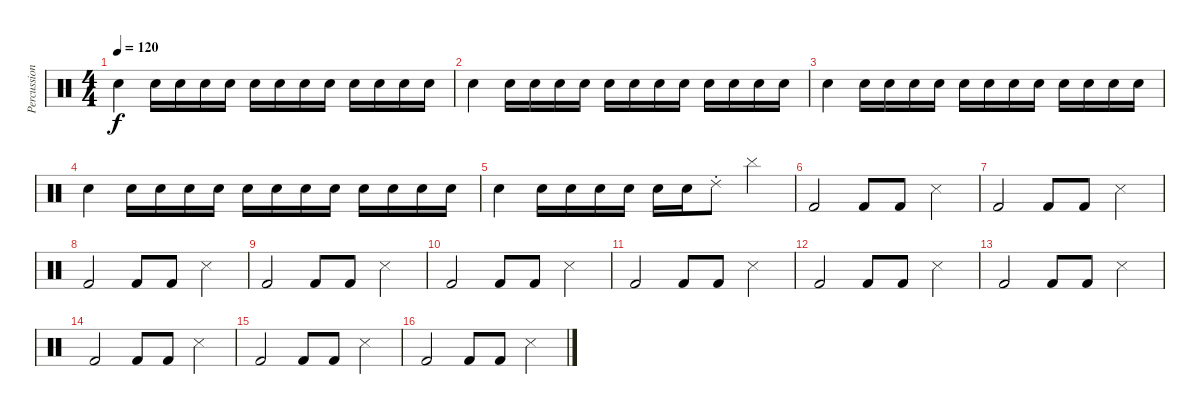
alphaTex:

\track ("Percussion" "Percussion") {instrument percussion}
\staff {score}
\articulation defaults
\ts (4 4)
\tempo 120
\clef neutral
\ks c "Snare (hit) 2".4{dy f} "Snare (hit) 2".16 "Snare (hit) 2".16 "Snare (hit) 2".16 "Snare (hit) 2".16 "Snare (hit) 2".16 "Snare (hit) 2".16 "Snare (hit) 2".16 "Snare (hit) 2".16 "Snare (hit) 2".16 "Snare (hit) 2".16 "Snare (hit) 2".16 "Snare (hit) 2".16
|
"Snare (hit) 2".4 "Snare (hit) 2".16 "Snare (hit) 2".16 "Snare (hit) 2".16 "Snare (hit) 2".16 "Snare (hit) 2".16 "Snare (hit) 2".16 "Snare (hit) 2".16 "Snare (hit) 2".16 "Snare (hit) 2".16 "Snare (hit) 2".16 "Snare (hit) 2".16 "Snare (hit) 2".16 |
"Snare (hit) 2".4 "Snare (hit) 2".16 "Snare (hit) 2".16 "Snare (hit) 2".16 "Snare (hit) 2".16 "Snare (hit) 2".16 "Snare (hit) 2".16 "Snare (hit) 2".16 "Snare (hit) 2".16 "Snare (hit) 2".16 "Snare (hit) 2".16 "Snare (hit) 2".16 "Snare (hit) 2".16 |
"Snare (hit) 2".4 "Snare (hit) 2".16 "Snare (hit) 2".16 "Snare (hit) 2".16 "Snare (hit) 2".16 "Snare (hit) 2".16 "Snare (hit) 2".16 "Snare (hit) 2".16 "Snare (hit) 2".16 "Snare (hit) 2".16 "Snare (hit) 2".16 "Snare (hit) 2".16 "Snare (hit) 2".16 |
"Snare (hit) 2".4 "Snare (hit) 2".16 "Snare (hit) 2".16 "Snare (hit) 2".16 "Snare (hit) 2".16 "Snare (hit) 2".16 "Snare (hit) 2".16 "Ride (choke) 2".8 "Cymbal (hit)".4 |
"Kick (hit) 2".2 "Kick (hit) 2".8 "Kick (hit) 2".8 "Snare (side stick) 3".4 |
"Kick (hit) 2".2 "Kick (hit) 2".8 "Kick (hit) 2".8 "Snare (side stick) 3".4 |
"Kick (hit) 2".2 "Kick (hit) 2".8 "Kick (hit) 2".8 "Snare (side stick) 3".4 |
"Kick (hit) 2".2 "Kick (hit) 2".8 "Kick (hit) 2".8 "Snare (side stick) 3".4 |
"Kick (hit) 2".2 "Kick (hit) 2".8 "Kick (hit) 2".8 "Snare (side stick) 3".4 |
"Kick (hit) 2".2 "Kick (hit) 2".8 "Kick (hit) 2".8 "Snare (side stick) 3".4 |
"Kick (hit) 2".2 "Kick (hit) 2".8 "Kick (hit) 2".8 "Snare (side stick) 3".4 |
"Kick (hit) 2".2 "Kick (hit) 2".8 "Kick (hit) 2".8 "Snare (side stick) 3".4 |
"Kick (hit) 2".2 "Kick (hit) 2".8 "Kick (hit) 2".8 "Snare (side stick) 3".4 |
"Kick (hit) 2".2 "Kick (hit) 2".8 "Kick (hit) 2".8 "Snare (side stick) 3".4 |
"Kick (hit) 2".2 "Kick (hit) 2".8 "Kick (hit) 2".8 "Snare (side stick) 3".4
